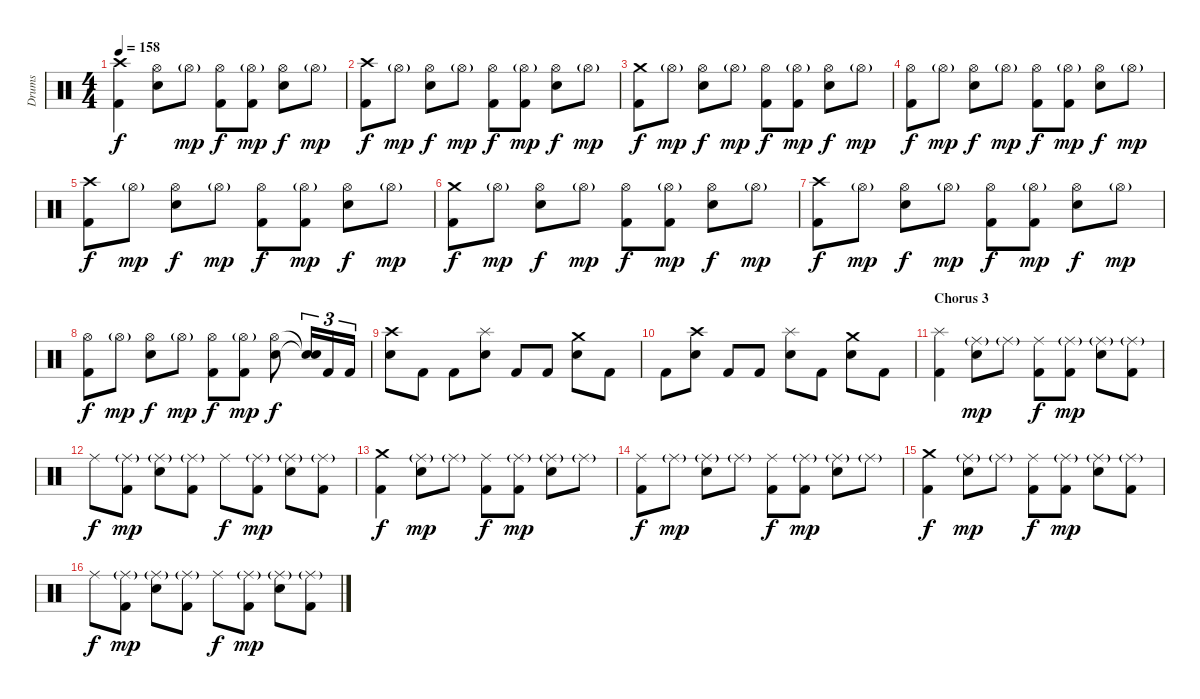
\track ("Drums" "Drums") {instrument percussion}
\staff {score}
\articulation defaults
\ts (4 4)
\tempo 158
\clef neutral
\ks c
("Crash high (hit)" "Kick (hit) 2").4{dy f} ("Hi-Hat (open)" "Snare (hit) 2").8 "Hi-Hat (open)"{g}.8{dy mp} ("Hi-Hat (open)" "Kick (hit) 2").8{dy f} ("Hi-Hat (open)"{g} "Kick (hit) 2").8{dy mp} ("Hi-Hat (open)" "Snare (hit) 2").8{dy f} "Hi-Hat (open)"{g}.8{dy mp} |
("Crash high (hit)" "Kick (hit) 2").8{dy f} "Hi-Hat (open)"{g}.8{dy mp} ("Hi-Hat (open)" "Snare (hit) 2").8{dy f} "Hi-Hat (open)"{g}.8{dy mp} ("Hi-Hat (open)" "Kick (hit) 2").8{dy f} ("Hi-Hat (open)"{g} "Kick (hit) 2").8{dy mp} ("Hi-Hat (open)" "Snare (hit) 2").8{dy f} "Hi-Hat (open)"{g}.8{dy mp} |
("Crash medium (hit)" "Kick (hit) 2").8{dy f} "Hi-Hat (open)"{g}.8{dy mp} ("Hi-Hat (open)" "Snare (hit) 2").8{dy f} "Hi-Hat (open)"{g}.8{dy mp} ("Hi-Hat (open)" "Kick (hit) 2").8{dy f} ("Hi-Hat (open)"{g} "Kick (hit) 2").8{dy mp} ("Hi-Hat (open)" "Snare (hit) 2").8{dy f} "Hi-Hat (open)"{g}.8{dy mp} |
("Hi-Hat (open)" "Kick (hit) 2").8{dy f} "Hi-Hat (open)"{g}.8{dy mp} ("Hi-Hat (open)" "Snare (hit) 2").8{dy f} "Hi-Hat (open)"{g}.8{dy mp} ("Hi-Hat (open)" "Kick (hit) 2").8{dy f} ("Hi-Hat (open)"{g} "Kick (hit) 2").8{dy mp} ("Hi-Hat (open)" "Snare (hit) 2").8{dy f} "Hi-Hat (open)"{g}.8{dy mp} |
("Crash high (hit)" "Kick (hit) 2").8{dy f} "Hi-Hat (open)"{g}.8{dy mp} ("Hi-Hat (open)" "Snare (hit) 2").8{dy f} "Hi-Hat (open)"{g}.8{dy mp} ("Hi-Hat (open)" "Kick (hit) 2").8{dy f} ("Hi-Hat (open)"{g} "Kick (hit) 2").8{dy mp} ("Hi-Hat (open)" "Snare (hit) 2").8{dy f} "Hi-Hat (open)"{g}.8{dy mp} |
("Crash medium (hit)" "Kick (hit) 2").8{dy f} "Hi-Hat (open)"{g}.8{dy mp} ("Hi-Hat (open)" "Snare (hit) 2").8{dy f} "Hi-Hat (open)"{g}.8{dy mp} ("Hi-Hat (open)" "Kick (hit) 2").8{dy f} ("Hi-Hat (open)"{g} "Kick (hit) 2").8{dy mp} ("Hi-Hat (open)" "Snare (hit) 2").8{dy f} "Hi-Hat (open)"{g}.8{dy mp} |
("Crash high (hit)" "Kick (hit) 2").8{dy f} "Hi-Hat (open)"{g}.8{dy mp} ("Hi-Hat (open)" "Snare (hit) 2").8{dy f} "Hi-Hat (open)"{g}.8{dy mp} ("Hi-Hat (open)" "Kick (hit) 2").8{dy f} ("Hi-Hat (open)"{g} "Kick (hit) 2").8{dy mp} ("Hi-Hat (open)" "Snare (hit) 2").8{dy f} "Hi-Hat (open)"{g}.8{dy mp} |
("Hi-Hat (open)" "Kick (hit) 2").8{dy f} "Hi-Hat (open)"{g}.8{dy mp} ("Hi-Hat (open)" "Snare (hit) 2").8{dy f} "Hi-Hat (open)"{g}.8{dy mp} ("Hi-Hat (open)" "Kick (hit) 2").8{dy f} ("Hi-Hat (open)"{g} "Kick (hit) 2").8{dy mp} ("Hi-Hat (open)" "Snare (hit) 2").8{dy f} ("Snare (hit)"{t} "Snare (hit)"{t}).16{tu (3 2)} "Kick (hit) 2".16{tu (3 2)} "Kick (hit) 2".16{tu (3 2)} |
("Crash high (hit)" "Snare (hit) 2").8 "Kick (hit) 2".8 "Kick (hit) 2".8 ("Splash (hit)" "Snare (hit) 2").8 "Kick (hit) 2".8 "Kick (hit) 2".8 ("Crash medium (hit)" "Snare (hit) 2").8 "Kick (hit) 2".8 |
"Kick (hit) 2".8 ("Crash high (hit)" "Snare (hit) 2").8 "Kick (hit) 2".8 "Kick (hit) 2".8 ("Splash (hit)" "Snare (hit) 2").8 "Kick (hit) 2".8 ("Crash medium (hit)" "Snare (hit) 2").8 "Kick (hit) 2".8 |
\section ("" "Chorus 3")
("Splash (hit)" "Kick (hit) 2").4 ("Ride (middle)"{g} "Snare (hit) 2").8{dy mp} "Ride (middle)"{g}.8 ("Ride (middle)" "Kick (hit) 2").8{dy f} ("Ride (middle)"{g} "Kick (hit) 2").8{dy mp} ("Ride (middle)"{g} "Snare (hit) 2").8 ("Ride (middle)"{g} "Kick (hit) 2").8 |
"Ride (middle)".8{dy f} ("Ride (middle)"{g} "Kick (hit) 2").8{dy mp} ("Ride (middle)"{g} "Snare (hit) 2").8 ("Ride (middle)"{g} "Kick (hit) 2").8 "Ride (middle)".8{dy f} ("Ride (middle)"{g} "Kick (hit) 2").8{dy mp} ("Ride (middle)"{g} "Snare (hit) 2").8 ("Ride (middle)"{g} "Kick (hit) 2").8 |
("Crash medium (hit)" "Kick (hit) 2").4{dy f} ("Ride (middle)"{g} "Snare (hit) 2").8{dy mp} "Ride (middle)"{g}.8 ("Ride (middle)" "Kick (hit) 2").8{dy f} ("Ride (middle)"{g} "Kick (hit) 2").8{dy mp} ("Ride (middle)"{g} "Snare (hit) 2").8 "Ride (middle)"{g}.8 |
("Ride (middle)" "Kick (hit) 2").8{dy f} "Ride (middle)"{g}.8{dy mp} ("Ride (middle)"{g} "Snare (hit) 2").8 "Ride (middle)"{g}.8 ("Ride (middle)" "Kick (hit) 2").8{dy f} ("Ride (middle)"{g} "Kick (hit) 2").8{dy mp} ("Ride (middle)"{g} "Snare (hit) 2").8 "Ride (middle)"{g}.8 |
("Crash medium (hit)" "Kick (hit) 2").4{dy f} ("Ride (middle)"{g} "Snare (hit) 2").8{dy mp} "Ride (middle)"{g}.8 ("Ride (middle)" "Kick (hit) 2").8{dy f} ("Ride (middle)"{g} "Kick (hit) 2").8{dy mp} ("Ride (middle)"{g} "Snare (hit) 2").8 ("Ride (middle)"{g} "Kick (hit) 2").8 |
"Ride (middle)".8{dy f} ("Ride (middle)"{g} "Kick (hit) 2").8{dy mp} ("Ride (middle)"{g} "Snare (hit) 2").8 ("Ride (middle)"{g} "Kick (hit) 2").8 "Ride (middle)".8{dy f} ("Ride (middle)"{g} "Kick (hit) 2").8{dy mp} ("Ride (middle)"{g} "Snare (hit) 2").8 ("Ride (middle)"{g} "Kick (hit) 2").8
